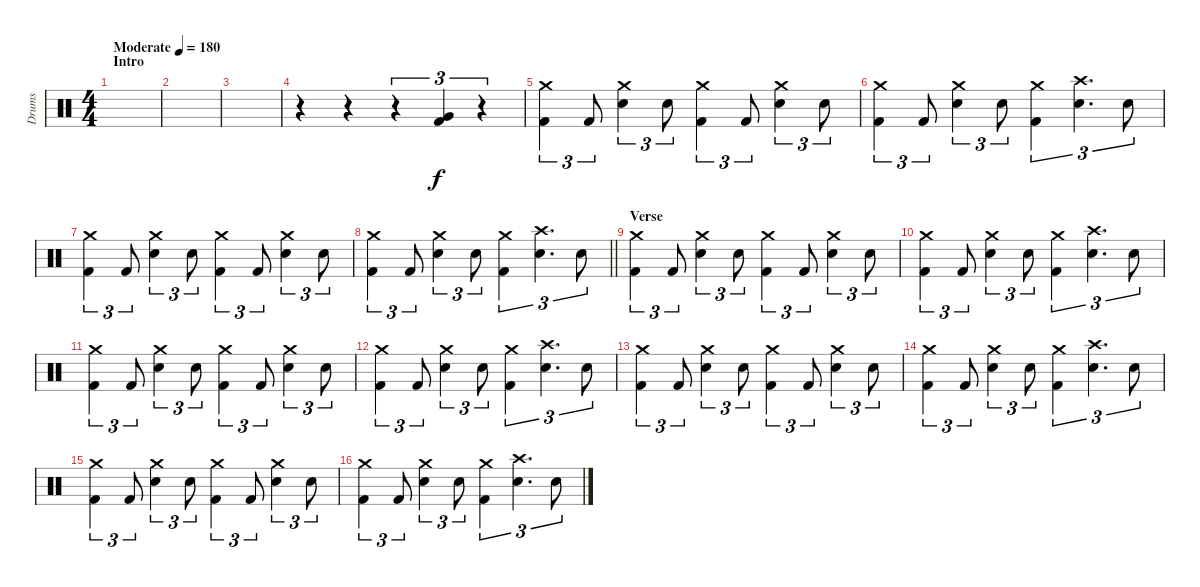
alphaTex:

\track ("Drums" "Drums") {instrument percussion}
\staff {score}
\articulation defaults
\ts (4 4)
\section ("" "Intro")
\tempo (180 "Moderate")
\clef neutral
\ks c
|
|
|
r.4 r.4 r.4{tu (3 2)} ("Very Low Tom (hit)" "Kick (hit) 2").4{tu (3 2)} r.4{tu (3 2)} |
("Crash medium (hit)" "Kick (hit) 2").4{tu (3 2)} "Kick (hit) 2".8{tu (3 2)} ("Crash medium (hit)" "Electric Snare (hit)").4{tu (3 2)} "Electric Snare (hit)".8{tu (3 2)} ("Crash medium (hit)" "Kick (hit) 2").4{tu (3 2)} "Kick (hit) 2".8{tu (3 2)} ("Crash medium (hit)" "Electric Snare (hit)").4{tu (3 2)} "Electric Snare (hit)".8{tu (3 2)} |
("Crash medium (hit)" "Kick (hit) 2").4{tu (3 2)} "Kick (hit) 2".8{tu (3 2)} ("Crash medium (hit)" "Electric Snare (hit)").4{tu (3 2)} "Electric Snare (hit)".8{tu (3 2)} ("Crash medium (hit)" "Kick (hit) 2").4{tu (3 2)} ("Crash high (hit)" "Electric Snare (hit)").4{d tu (3 2)} "Electric Snare (hit)".8{tu (3 2)} |
("Crash medium (hit)" "Kick (hit) 2").4{tu (3 2)} "Kick (hit) 2".8{tu (3 2)} ("Crash medium (hit)" "Electric Snare (hit)").4{tu (3 2)} "Electric Snare (hit)".8{tu (3 2)} ("Crash medium (hit)" "Kick (hit) 2").4{tu (3 2)} "Kick (hit) 2".8{tu (3 2)} ("Crash medium (hit)" "Electric Snare (hit)").4{tu (3 2)} "Electric Snare (hit)".8{tu (3 2)} |
\barLineRight lightlight
("Crash medium (hit)" "Kick (hit) 2").4{tu (3 2)} "Kick (hit) 2".8{tu (3 2)} ("Crash medium (hit)" "Electric Snare (hit)").4{tu (3 2)} "Electric Snare (hit)".8{tu (3 2)} ("Crash medium (hit)" "Kick (hit) 2").4{tu (3 2)} ("Crash high (hit)" "Electric Snare (hit)").4{d tu (3 2)} "Electric Snare (hit)".8{tu (3 2)} |
\section ("" "Verse ")
("Crash medium (hit)" "Kick (hit) 2").4{tu (3 2)} "Kick (hit) 2".8{tu (3 2)} ("Crash medium (hit)" "Electric Snare (hit)").4{tu (3 2)} "Electric Snare (hit)".8{tu (3 2)} ("Crash medium (hit)" "Kick (hit) 2").4{tu (3 2)} "Kick (hit) 2".8{tu (3 2)} ("Crash medium (hit)" "Electric Snare (hit)").4{tu (3 2)} "Electric Snare (hit)".8{tu (3 2)} |
("Crash medium (hit)" "Kick (hit) 2").4{tu (3 2)} "Kick (hit) 2".8{tu (3 2)} ("Crash medium (hit)" "Electric Snare (hit)").4{tu (3 2)} "Electric Snare (hit)".8{tu (3 2)} ("Crash medium (hit)" "Kick (hit) 2").4{tu (3 2)} ("Crash high (hit)" "Electric Snare (hit)").4{d tu (3 2)} "Electric Snare (hit)".8{tu (3 2)} |
("Crash medium (hit)" "Kick (hit) 2").4{tu (3 2)} "Kick (hit) 2".8{tu (3 2)} ("Crash medium (hit)" "Electric Snare (hit)").4{tu (3 2)} "Electric Snare (hit)".8{tu (3 2)} ("Crash medium (hit)" "Kick (hit) 2").4{tu (3 2)} "Kick (hit) 2".8{tu (3 2)} ("Crash medium (hit)" "Electric Snare (hit)").4{tu (3 2)} "Electric Snare (hit)".8{tu (3 2)} |
("Crash medium (hit)" "Kick (hit) 2").4{tu (3 2)} "Kick (hit) 2".8{tu (3 2)} ("Crash medium (hit)" "Electric Snare (hit)").4{tu (3 2)} "Electric Snare (hit)".8{tu (3 2)} ("Crash medium (hit)" "Kick (hit) 2").4{tu (3 2)} ("Crash high (hit)" "Electric Snare (hit)").4{d tu (3 2)} "Electric Snare (hit)".8{tu (3 2)} |
("Crash medium (hit)" "Kick (hit) 2").4{tu (3 2)} "Kick (hit) 2".8{tu (3 2)} ("Crash medium (hit)" "Electric Snare (hit)").4{tu (3 2)} "Electric Snare (hit)".8{tu (3 2)} ("Crash medium (hit)" "Kick (hit) 2").4{tu (3 2)} "Kick (hit) 2".8{tu (3 2)} ("Crash medium (hit)" "Electric Snare (hit)").4{tu (3 2)} "Electric Snare (hit)".8{tu (3 2)} |
("Crash medium (hit)" "Kick (hit) 2").4{tu (3 2)} "Kick (hit) 2".8{tu (3 2)} ("Crash medium (hit)" "Electric Snare (hit)").4{tu (3 2)} "Electric Snare (hit)".8{tu (3 2)} ("Crash medium (hit)" "Kick (hit) 2").4{tu (3 2)} ("Crash high (hit)" "Electric Snare (hit)").4{d tu (3 2)} "Electric Snare (hit)".8{tu (3 2)} |
("Crash medium (hit)" "Kick (hit) 2").4{tu (3 2)} "Kick (hit) 2".8{tu (3 2)} ("Crash medium (hit)" "Electric Snare (hit)").4{tu (3 2)} "Electric Snare (hit)".8{tu (3 2)} ("Crash medium (hit)" "Kick (hit) 2").4{tu (3 2)} "Kick (hit) 2".8{tu (3 2)} ("Crash medium (hit)" "Electric Snare (hit)").4{tu (3 2)} "Electric Snare (hit)".8{tu (3 2)} |
("Crash medium (hit)" "Kick (hit) 2").4{tu (3 2)} "Kick (hit) 2".8{tu (3 2)} ("Crash medium (hit)" "Electric Snare (hit)").4{tu (3 2)} "Electric Snare (hit)".8{tu (3 2)} ("Crash medium (hit)" "Kick (hit) 2").4{tu (3 2)} ("Crash high (hit)" "Electric Snare (hit)").4{d tu (3 2)} "Electric Snare (hit)".8{tu (3 2)}
